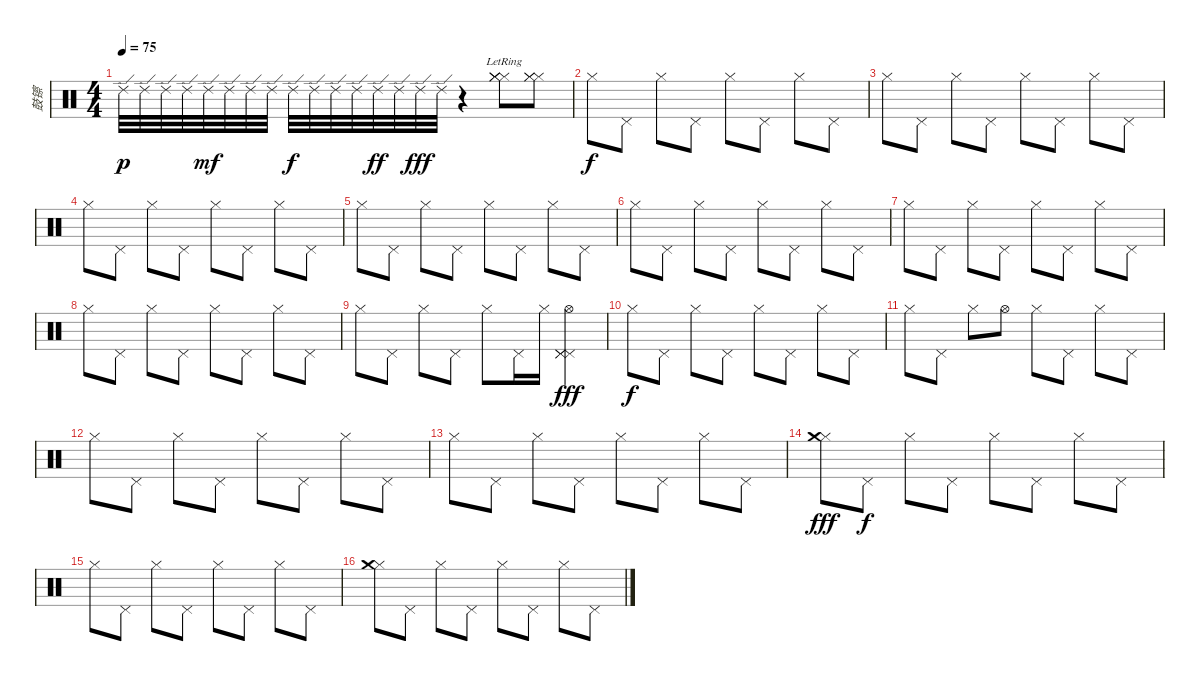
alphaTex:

\track ("鼓镲" "鼓镲") {instrument percussion}
\staff {score}
\articulation defaults
\ts (4 4)
\tempo 75
\clef neutral
\ks c "Ride (edge) 2".32{dy p} "Ride (edge) 2".32 "Ride (edge) 2".32 "Ride (edge) 2".32 "Ride (edge) 2".32{dy mf} "Ride (edge) 2".32 "Ride (edge) 2".32 "Ride (edge) 2".32 "Ride (edge) 2".32{dy f} "Ride (edge) 2".32 "Ride (edge) 2".32 "Ride (edge) 2".32 "Ride (edge) 2".32{dy ff} "Ride (edge) 2".32 "Ride (edge) 2".32{dy fff} "Ride (edge) 2".32
r.4 ("Hi-Hat (closed)"{lr} "Hi-Hat (closed)"{lr} "Hi-Hat (closed)"{lr} "Hi-Hat (closed)"{lr}).8 ("Hi-Hat (closed)"{lr} "Hi-Hat (closed)"{lr} "Hi-Hat (closed)"{lr}).8 |
"Hi-Hat (closed)".8{dy f} "Pedal Hi-Hat (hit)".8 "Hi-Hat (closed)".8 "Pedal Hi-Hat (hit)".8 "Hi-Hat (closed)".8 "Pedal Hi-Hat (hit)".8 "Hi-Hat (closed)".8 "Pedal Hi-Hat (hit)".8 |
"Hi-Hat (closed)".8 "Pedal Hi-Hat (hit)".8 "Hi-Hat (closed)".8 "Pedal Hi-Hat (hit)".8 "Hi-Hat (closed)".8 "Pedal Hi-Hat (hit)".8 "Hi-Hat (closed)".8 "Pedal Hi-Hat (hit)".8 |
"Hi-Hat (closed)".8 "Pedal Hi-Hat (hit)".8 "Hi-Hat (closed)".8 "Pedal Hi-Hat (hit)".8 "Hi-Hat (closed)".8 "Pedal Hi-Hat (hit)".8 "Hi-Hat (closed)".8 "Pedal Hi-Hat (hit)".8 |
"Hi-Hat (closed)".8 "Pedal Hi-Hat (hit)".8 "Hi-Hat (closed)".8 "Pedal Hi-Hat (hit)".8 "Hi-Hat (closed)".8 "Pedal Hi-Hat (hit)".8 "Hi-Hat (closed)".8 "Pedal Hi-Hat (hit)".8 |
"Hi-Hat (closed)".8 "Pedal Hi-Hat (hit)".8 "Hi-Hat (closed)".8 "Pedal Hi-Hat (hit)".8 "Hi-Hat (closed)".8 "Pedal Hi-Hat (hit)".8 "Hi-Hat (closed)".8 "Pedal Hi-Hat (hit)".8 |
"Hi-Hat (closed)".8 "Pedal Hi-Hat (hit)".8 "Hi-Hat (closed)".8 "Pedal Hi-Hat (hit)".8 "Hi-Hat (closed)".8 "Pedal Hi-Hat (hit)".8 "Hi-Hat (closed)".8 "Pedal Hi-Hat (hit)".8 |
"Hi-Hat (closed)".8 "Pedal Hi-Hat (hit)".8 "Hi-Hat (closed)".8 "Pedal Hi-Hat (hit)".8 "Hi-Hat (closed)".8 "Pedal Hi-Hat (hit)".8 "Hi-Hat (closed)".8 "Pedal Hi-Hat (hit)".8 |
"Hi-Hat (closed)".8 "Pedal Hi-Hat (hit)".8 "Hi-Hat (closed)".8 "Pedal Hi-Hat (hit)".8 "Hi-Hat (closed)".8 "Pedal Hi-Hat (hit)".16 "Hi-Hat (closed)".16 ("Pedal Hi-Hat (hit)" "Pedal Hi-Hat (hit)" "Pedal Hi-Hat (hit)" "Hi-Hat (open)").4{dy fff} |
"Hi-Hat (closed)".8{dy f} "Pedal Hi-Hat (hit)".8 "Hi-Hat (closed)".8 "Pedal Hi-Hat (hit)".8 "Hi-Hat (closed)".8 "Pedal Hi-Hat (hit)".8 "Hi-Hat (closed)".8 "Pedal Hi-Hat (hit)".8 |
"Hi-Hat (closed)".8 "Pedal Hi-Hat (hit)".8 "Hi-Hat (closed)".8 "Hi-Hat (open)".8 "Hi-Hat (closed)".8 "Pedal Hi-Hat (hit)".8 "Hi-Hat (closed)".8 "Pedal Hi-Hat (hit)".8 |
"Hi-Hat (closed)".8 "Pedal Hi-Hat (hit)".8 "Hi-Hat (closed)".8 "Pedal Hi-Hat (hit)".8 "Hi-Hat (closed)".8 "Pedal Hi-Hat (hit)".8 "Hi-Hat (closed)".8 "Pedal Hi-Hat (hit)".8 |
"Hi-Hat (closed)".8 "Pedal Hi-Hat (hit)".8 "Hi-Hat (closed)".8 "Pedal Hi-Hat (hit)".8 "Hi-Hat (closed)".8 "Pedal Hi-Hat (hit)".8 "Hi-Hat (closed)".8 "Pedal Hi-Hat (hit)".8 |
("Hi-Hat (closed)" "Crash medium (hit)").8{dy fff} "Pedal Hi-Hat (hit)".8{dy f} "Hi-Hat (closed)".8 "Pedal Hi-Hat (hit)".8 "Hi-Hat (closed)".8 "Pedal Hi-Hat (hit)".8 "Hi-Hat (closed)".8 "Pedal Hi-Hat (hit)".8 |
"Hi-Hat (closed)".8 "Pedal Hi-Hat (hit)".8 "Hi-Hat (closed)".8 "Pedal Hi-Hat (hit)".8 "Hi-Hat (closed)".8 "Pedal Hi-Hat (hit)".8 "Hi-Hat (closed)".8 "Pedal Hi-Hat (hit)".8 |
("Hi-Hat (closed)" "Crash medium (hit)").8 "Pedal Hi-Hat (hit)".8 "Hi-Hat (closed)".8 "Pedal Hi-Hat (hit)".8 "Hi-Hat (closed)".8 "Pedal Hi-Hat (hit)".8 "Hi-Hat (closed)".8 "Pedal Hi-Hat (hit)".8
